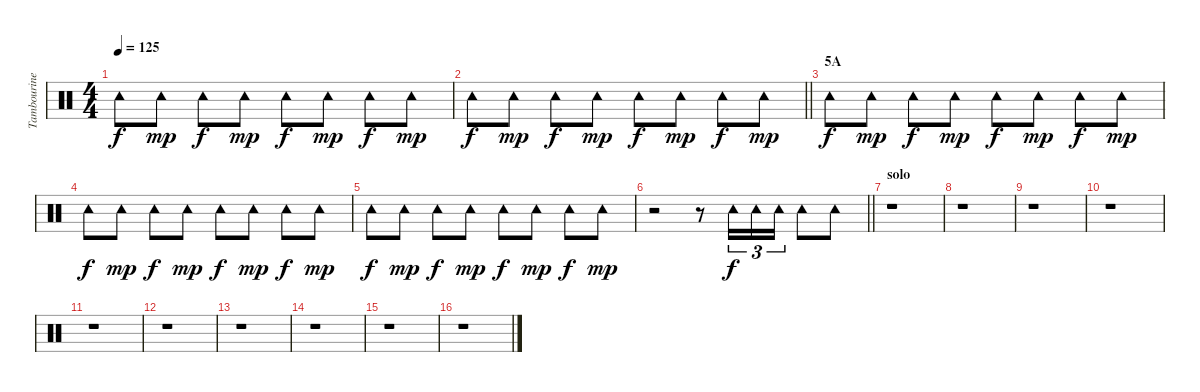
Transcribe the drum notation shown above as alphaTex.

\track ("Tambourine" "Tambourine") {instrument percussion}
\staff {score}
\articulation defaults
\ts (4 4)
\tempo 125
\clef neutral
\ks c "Tambourine (hit)".8{dy f} "Tambourine (hit)".8{dy mp} "Tambourine (hit)".8{dy f} "Tambourine (hit)".8{dy mp} "Tambourine (hit)".8{dy f} "Tambourine (hit)".8{dy mp} "Tambourine (hit)".8{dy f} "Tambourine (hit)".8{dy mp}
|
\barLineRight lightlight "Tambourine (hit)".8{dy f} "Tambourine (hit)".8{dy mp} "Tambourine (hit)".8{dy f} "Tambourine (hit)".8{dy mp} "Tambourine (hit)".8{dy f} "Tambourine (hit)".8{dy mp} "Tambourine (hit)".8{dy f} "Tambourine (hit)".8{dy mp}
|
\section ("" "5A")
"Tambourine (hit)".8{dy f} "Tambourine (hit)".8{dy mp} "Tambourine (hit)".8{dy f} "Tambourine (hit)".8{dy mp} "Tambourine (hit)".8{dy f} "Tambourine (hit)".8{dy mp} "Tambourine (hit)".8{dy f} "Tambourine (hit)".8{dy mp} |
"Tambourine (hit)".8{dy f} "Tambourine (hit)".8{dy mp} "Tambourine (hit)".8{dy f} "Tambourine (hit)".8{dy mp} "Tambourine (hit)".8{dy f} "Tambourine (hit)".8{dy mp} "Tambourine (hit)".8{dy f} "Tambourine (hit)".8{dy mp} |
"Tambourine (hit)".8{dy f} "Tambourine (hit)".8{dy mp} "Tambourine (hit)".8{dy f} "Tambourine (hit)".8{dy mp} "Tambourine (hit)".8{dy f} "Tambourine (hit)".8{dy mp} "Tambourine (hit)".8{dy f} "Tambourine (hit)".8{dy mp} |
\barLineRight lightlight
r.2 r.8 "Tambourine (hit)".16{tu (3 2) dy f} "Tambourine (hit)".16{tu (3 2)} "Tambourine (hit)".16{tu (3 2)} "Tambourine (hit)".8 "Tambourine (hit)".8 |
\section ("" "solo")
r.1 |
r.1 |
r.1 |
r.1 |
r.1 |
r.1 |
r.1 |
r.1 |
r.1 |
r.1
